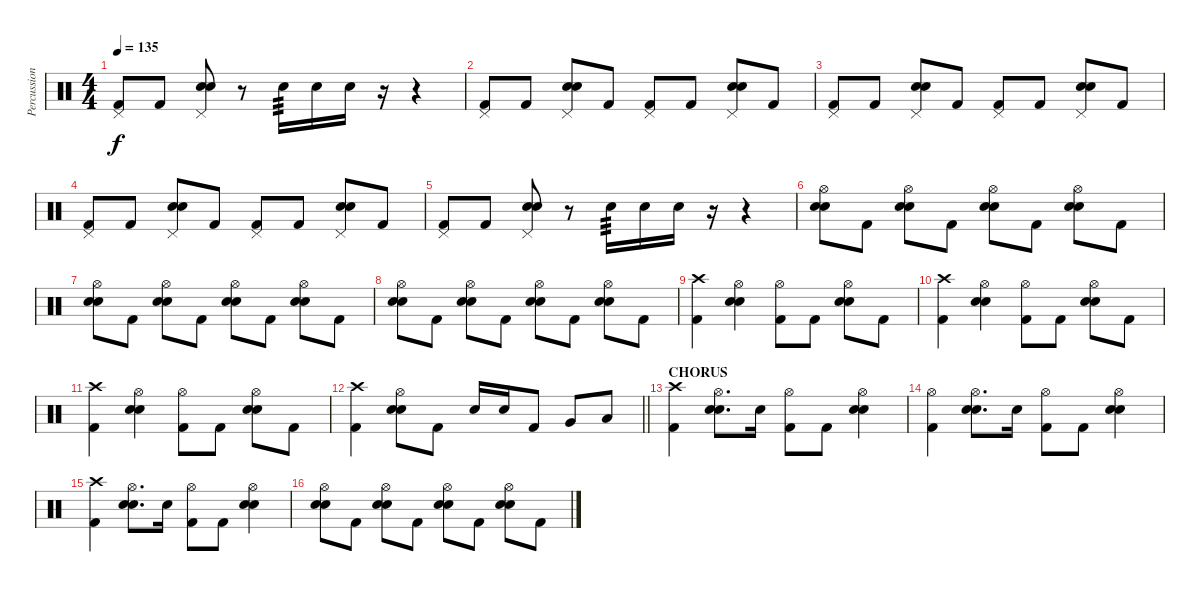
\track ("Percussion" "Percussion") {instrument percussion}
\staff {score}
\articulation defaults
\ts (4 4)
\tempo 135
\clef neutral
\ks c
("Pedal Hi-Hat (hit)" "Kick (hit) 2").8{dy f} "Kick (hit) 2".8 ("Pedal Hi-Hat (hit)" "Snare (hit) 2" "Electric Snare (hit)").8 r.8 "Snare (hit) 2".16{tp 3} "Snare (hit) 2".16 "Snare (hit) 2".16 r.16 r.4 |
("Pedal Hi-Hat (hit)" "Kick (hit) 2").8 "Kick (hit) 2".8 ("Pedal Hi-Hat (hit)" "Snare (hit) 2" "Electric Snare (hit)").8 "Kick (hit) 2".8 ("Pedal Hi-Hat (hit)" "Kick (hit) 2").8 "Kick (hit) 2".8 ("Pedal Hi-Hat (hit)" "Snare (hit) 2" "Electric Snare (hit)").8 "Kick (hit) 2".8 |
("Pedal Hi-Hat (hit)" "Kick (hit) 2").8 "Kick (hit) 2".8 ("Pedal Hi-Hat (hit)" "Snare (hit) 2" "Electric Snare (hit)").8 "Kick (hit) 2".8 ("Pedal Hi-Hat (hit)" "Kick (hit) 2").8 "Kick (hit) 2".8 ("Pedal Hi-Hat (hit)" "Snare (hit) 2" "Electric Snare (hit)").8 "Kick (hit) 2".8 |
("Pedal Hi-Hat (hit)" "Kick (hit) 2").8 "Kick (hit) 2".8 ("Pedal Hi-Hat (hit)" "Snare (hit) 2" "Electric Snare (hit)").8 "Kick (hit) 2".8 ("Pedal Hi-Hat (hit)" "Kick (hit) 2").8 "Kick (hit) 2".8 ("Pedal Hi-Hat (hit)" "Snare (hit) 2" "Electric Snare (hit)").8 "Kick (hit) 2".8 |
("Pedal Hi-Hat (hit)" "Kick (hit) 2").8 "Kick (hit) 2".8 ("Pedal Hi-Hat (hit)" "Snare (hit) 2" "Electric Snare (hit)").8 r.8 "Snare (hit) 2".16{tp 3} "Snare (hit) 2".16 "Snare (hit) 2".16 r.16 r.4 |
("Hi-Hat (open)" "Snare (hit) 2" "Electric Snare (hit)").8 "Kick (hit) 2".8 ("Hi-Hat (open)" "Snare (hit) 2" "Electric Snare (hit)").8 "Kick (hit) 2".8 ("Hi-Hat (open)" "Snare (hit) 2" "Electric Snare (hit)").8 "Kick (hit) 2".8 ("Hi-Hat (open)" "Snare (hit) 2" "Electric Snare (hit)").8 "Kick (hit) 2".8 |
("Hi-Hat (open)" "Snare (hit) 2" "Electric Snare (hit)").8 "Kick (hit) 2".8 ("Hi-Hat (open)" "Snare (hit) 2" "Electric Snare (hit)").8 "Kick (hit) 2".8 ("Hi-Hat (open)" "Snare (hit) 2" "Electric Snare (hit)").8 "Kick (hit) 2".8 ("Hi-Hat (open)" "Snare (hit) 2" "Electric Snare (hit)").8 "Kick (hit) 2".8 |
("Hi-Hat (open)" "Snare (hit) 2" "Electric Snare (hit)").8 "Kick (hit) 2".8 ("Hi-Hat (open)" "Snare (hit) 2" "Electric Snare (hit)").8 "Kick (hit) 2".8 ("Hi-Hat (open)" "Snare (hit) 2" "Electric Snare (hit)").8 "Kick (hit) 2".8 ("Hi-Hat (open)" "Snare (hit) 2" "Electric Snare (hit)").8 "Kick (hit) 2".8 |
("Crash high (hit)" "Kick (hit) 2").4 ("Hi-Hat (open)" "Snare (hit) 2" "Electric Snare (hit)").4 ("Hi-Hat (open)" "Kick (hit) 2").8 "Kick (hit) 2".8 ("Hi-Hat (open)" "Snare (hit) 2" "Electric Snare (hit)").8 "Kick (hit) 2".8 |
("Crash high (hit)" "Kick (hit) 2").4 ("Hi-Hat (open)" "Snare (hit) 2" "Electric Snare (hit)").4 ("Hi-Hat (open)" "Kick (hit) 2").8 "Kick (hit) 2".8 ("Hi-Hat (open)" "Snare (hit) 2" "Electric Snare (hit)").8 "Kick (hit) 2".8 |
("Crash high (hit)" "Kick (hit) 2").4 ("Hi-Hat (open)" "Snare (hit) 2" "Electric Snare (hit)").4 ("Hi-Hat (open)" "Kick (hit) 2").8 "Kick (hit) 2".8 ("Hi-Hat (open)" "Snare (hit) 2" "Electric Snare (hit)").8 "Kick (hit) 2".8 |
\barLineRight lightlight
("Crash high (hit)" "Kick (hit) 2").4 ("Hi-Hat (open)" "Snare (hit) 2" "Electric Snare (hit)").8 "Kick (hit) 2".8 "Snare (hit) 2".16 "Snare (hit) 2".16 "Kick (hit) 2".8 "Very Low Tom (hit)".8 "Low Floor Tom (hit)".8 |
\section ("" "CHORUS")
("Crash high (hit)" "Kick (hit) 2").4 ("Hi-Hat (open)" "Snare (hit) 2" "Electric Snare (hit)").8{d} "Electric Snare (hit)".16 ("Hi-Hat (open)" "Kick (hit) 2").8 "Kick (hit) 2".8 ("Hi-Hat (open)" "Snare (hit) 2" "Electric Snare (hit)").4 |
("Hi-Hat (open)" "Kick (hit) 2").4 ("Hi-Hat (open)" "Snare (hit) 2" "Electric Snare (hit)").8{d} "Electric Snare (hit)".16 ("Hi-Hat (open)" "Kick (hit) 2").8 "Kick (hit) 2".8 ("Hi-Hat (open)" "Snare (hit) 2" "Electric Snare (hit)").4 |
("Crash high (hit)" "Kick (hit) 2").4 ("Hi-Hat (open)" "Snare (hit) 2" "Electric Snare (hit)").8{d} "Electric Snare (hit)".16 ("Hi-Hat (open)" "Kick (hit) 2").8 "Kick (hit) 2".8 ("Hi-Hat (open)" "Snare (hit) 2" "Electric Snare (hit)").4 |
("Hi-Hat (open)" "Snare (hit) 2" "Electric Snare (hit)").8 "Kick (hit) 2".8 ("Hi-Hat (open)" "Snare (hit) 2" "Electric Snare (hit)").8 "Kick (hit) 2".8 ("Hi-Hat (open)" "Snare (hit) 2" "Electric Snare (hit)").8 "Kick (hit) 2".8 ("Hi-Hat (open)" "Snare (hit) 2" "Electric Snare (hit)").8 "Kick (hit) 2".8
